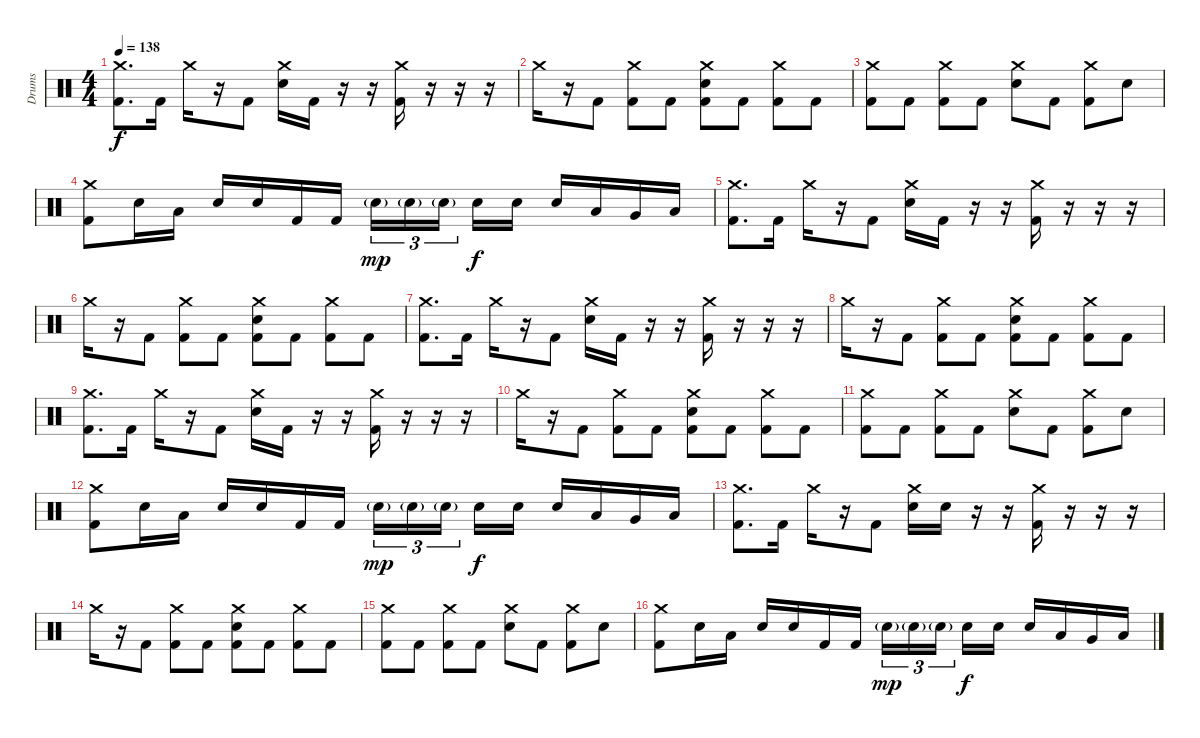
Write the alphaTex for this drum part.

\track ("Drums" "Drums") {instrument percussion}
\staff {score}
\articulation defaults
\ts (4 4)
\tempo 138
\clef neutral
\ks c
("Crash medium (hit)" "Kick (hit) 2").8{d dy f} "Kick (hit) 2".16 "Crash medium (hit)".16 r.16 "Kick (hit) 2".8 ("Crash medium (hit)" "Electric Snare (hit)").16 "Kick (hit) 2".16 r.16 r.16 ("Crash medium (hit)" "Kick (hit) 2").16 r.16 r.16 r.16 |
"Crash medium (hit)".16 r.16 "Kick (hit) 2".8 ("Crash medium (hit)" "Kick (hit) 2").8 "Kick (hit) 2".8 ("Crash medium (hit)" "Electric Snare (hit)" "Kick (hit) 2").8 "Kick (hit) 2".8 ("Crash medium (hit)" "Kick (hit) 2").8 "Kick (hit) 2".8 |
("Crash medium (hit)" "Kick (hit) 2").8 "Kick (hit) 2".8 ("Crash medium (hit)" "Kick (hit) 2").8 "Kick (hit) 2".8 ("Crash medium (hit)" "Electric Snare (hit)").8 "Kick (hit) 2".8 ("Crash medium (hit)" "Kick (hit) 2").8 "Electric Snare (hit)".8 |
("Crash medium (hit)" "Kick (hit) 2").8 "Electric Snare (hit)".16 "Low Floor Tom (hit)".16 "Electric Snare (hit)".16 "Electric Snare (hit)".16 "Kick (hit) 2".16 "Kick (hit) 2".16 "Snare (hit) 2"{g}.16{tu (3 2) dy mp} "Snare (hit) 2"{g}.16{tu (3 2)} "Snare (hit) 2"{g}.16{tu (3 2)} "Electric Snare (hit)".16{dy f} "Electric Snare (hit)".16 "Electric Snare (hit)".16 "Low Tom (hit)".16 "Very Low Tom (hit)".16 "Low Floor Tom (hit)".16 |
("Crash medium (hit)" "Kick (hit) 2").8{d} "Kick (hit) 2".16 "Crash medium (hit)".16 r.16 "Kick (hit) 2".8 ("Crash medium (hit)" "Electric Snare (hit)").16 "Kick (hit) 2".16 r.16 r.16 ("Crash medium (hit)" "Kick (hit) 2").16 r.16 r.16 r.16 |
"Crash medium (hit)".16 r.16 "Kick (hit) 2".8 ("Crash medium (hit)" "Kick (hit) 2").8 "Kick (hit) 2".8 ("Crash medium (hit)" "Electric Snare (hit)" "Kick (hit) 2").8 "Kick (hit) 2".8 ("Crash medium (hit)" "Kick (hit) 2").8 "Kick (hit) 2".8 |
("Crash medium (hit)" "Kick (hit) 2").8{d} "Kick (hit) 2".16 "Crash medium (hit)".16 r.16 "Kick (hit) 2".8 ("Crash medium (hit)" "Electric Snare (hit)").16 "Kick (hit) 2".16 r.16 r.16 ("Crash medium (hit)" "Kick (hit) 2").16 r.16 r.16 r.16 |
"Crash medium (hit)".16 r.16 "Kick (hit) 2".8 ("Crash medium (hit)" "Kick (hit) 2").8 "Kick (hit) 2".8 ("Crash medium (hit)" "Electric Snare (hit)" "Kick (hit) 2").8 "Kick (hit) 2".8 ("Crash medium (hit)" "Kick (hit) 2").8 "Kick (hit) 2".8 |
("Crash medium (hit)" "Kick (hit) 2").8{d} "Kick (hit) 2".16 "Crash medium (hit)".16 r.16 "Kick (hit) 2".8 ("Crash medium (hit)" "Electric Snare (hit)").16 "Kick (hit) 2".16 r.16 r.16 ("Crash medium (hit)" "Kick (hit) 2").16 r.16 r.16 r.16 |
"Crash medium (hit)".16 r.16 "Kick (hit) 2".8 ("Crash medium (hit)" "Kick (hit) 2").8 "Kick (hit) 2".8 ("Crash medium (hit)" "Electric Snare (hit)" "Kick (hit) 2").8 "Kick (hit) 2".8 ("Crash medium (hit)" "Kick (hit) 2").8 "Kick (hit) 2".8 |
("Crash medium (hit)" "Kick (hit) 2").8 "Kick (hit) 2".8 ("Crash medium (hit)" "Kick (hit) 2").8 "Kick (hit) 2".8 ("Crash medium (hit)" "Electric Snare (hit)").8 "Kick (hit) 2".8 ("Crash medium (hit)" "Kick (hit) 2").8 "Electric Snare (hit)".8 |
("Crash medium (hit)" "Kick (hit) 2").8 "Electric Snare (hit)".16 "Low Floor Tom (hit)".16 "Electric Snare (hit)".16 "Electric Snare (hit)".16 "Kick (hit) 2".16 "Kick (hit) 2".16 "Snare (hit) 2"{g}.16{tu (3 2) dy mp} "Snare (hit) 2"{g}.16{tu (3 2)} "Snare (hit) 2"{g}.16{tu (3 2)} "Electric Snare (hit)".16{dy f} "Electric Snare (hit)".16 "Electric Snare (hit)".16 "Low Tom (hit)".16 "Very Low Tom (hit)".16 "Low Floor Tom (hit)".16 |
("Crash medium (hit)" "Kick (hit) 2").8{d} "Kick (hit) 2".16 "Crash medium (hit)".16 r.16 "Kick (hit) 2".8 ("Crash medium (hit)" "Electric Snare (hit)").16 "Electric Snare (hit)".16 r.16 r.16 ("Crash medium (hit)" "Kick (hit) 2").16 r.16 r.16 r.16 |
"Crash medium (hit)".16 r.16 "Kick (hit) 2".8 ("Crash medium (hit)" "Kick (hit) 2").8 "Kick (hit) 2".8 ("Crash medium (hit)" "Electric Snare (hit)" "Kick (hit) 2").8 "Kick (hit) 2".8 ("Crash medium (hit)" "Kick (hit) 2").8 "Kick (hit) 2".8 |
("Crash medium (hit)" "Kick (hit) 2").8 "Kick (hit) 2".8 ("Crash medium (hit)" "Kick (hit) 2").8 "Kick (hit) 2".8 ("Crash medium (hit)" "Electric Snare (hit)").8 "Kick (hit) 2".8 ("Crash medium (hit)" "Kick (hit) 2").8 "Electric Snare (hit)".8 |
("Crash medium (hit)" "Kick (hit) 2").8 "Electric Snare (hit)".16 "Low Floor Tom (hit)".16 "Electric Snare (hit)".16 "Electric Snare (hit)".16 "Kick (hit) 2".16 "Kick (hit) 2".16 "Snare (hit) 2"{g}.16{tu (3 2) dy mp} "Snare (hit) 2"{g}.16{tu (3 2)} "Snare (hit) 2"{g}.16{tu (3 2)} "Electric Snare (hit)".16{dy f} "Electric Snare (hit)".16 "Electric Snare (hit)".16 "Low Tom (hit)".16 "Very Low Tom (hit)".16 "Low Floor Tom (hit)".16
